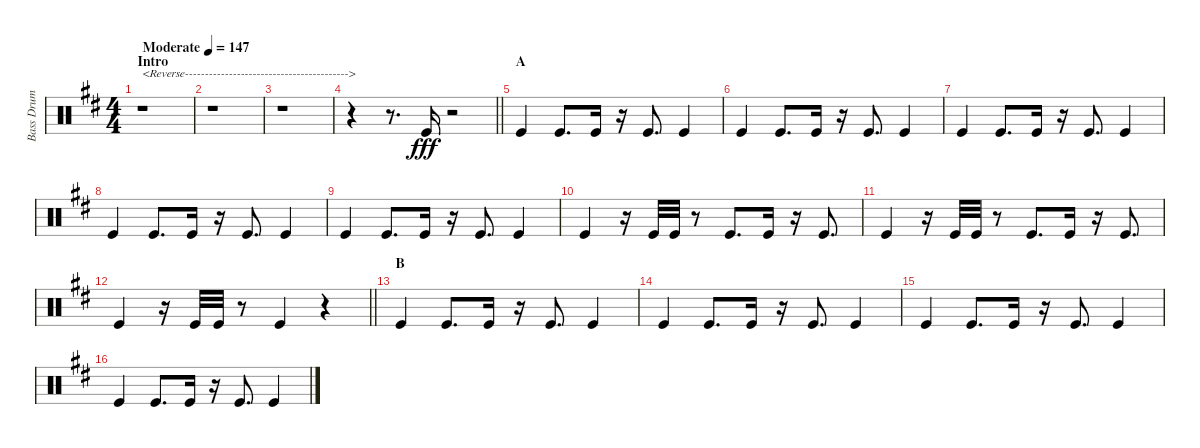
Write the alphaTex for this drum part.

\track ("Bass Drum" "Bass Drum") {instrument percussion}
\staff {score}
\articulation defaults
\ts (4 4)
\section ("" "Intro")
\tempo (147 "Moderate")
\clef neutral
\ks d
r.1{txt "<Reverse----------------------------------------->" dy fff} |
r.1 |
r.1 |
\barLineRight lightlight
r.4 r.8{d} "Kick (hit)".16 r.2 |
\section ("" "A")
"Kick (hit)".4 "Kick (hit)".8{d} "Kick (hit)".16 r.16 "Kick (hit)".8{d} "Kick (hit)".4 |
"Kick (hit)".4 "Kick (hit)".8{d} "Kick (hit)".16 r.16 "Kick (hit)".8{d} "Kick (hit)".4 |
"Kick (hit)".4 "Kick (hit)".8{d} "Kick (hit)".16 r.16 "Kick (hit)".8{d} "Kick (hit)".4 |
"Kick (hit)".4 "Kick (hit)".8{d} "Kick (hit)".16 r.16 "Kick (hit)".8{d} "Kick (hit)".4 |
"Kick (hit)".4 "Kick (hit)".8{d} "Kick (hit)".16 r.16 "Kick (hit)".8{d} "Kick (hit)".4 |
"Kick (hit)".4 r.16 "Kick (hit)".32 "Kick (hit)".32 r.8 "Kick (hit)".8{d} "Kick (hit)".16 r.16 "Kick (hit)".8{d} |
"Kick (hit)".4 r.16 "Kick (hit)".32 "Kick (hit)".32 r.8 "Kick (hit)".8{d} "Kick (hit)".16 r.16 "Kick (hit)".8{d} |
\barLineRight lightlight "Kick (hit)".4
r.16 "Kick (hit)".32 "Kick (hit)".32 r.8 "Kick (hit)".4 r.4 |
\section ("" "B")
"Kick (hit)".4 "Kick (hit)".8{d} "Kick (hit)".16 r.16 "Kick (hit)".8{d} "Kick (hit)".4 |
"Kick (hit)".4 "Kick (hit)".8{d} "Kick (hit)".16 r.16 "Kick (hit)".8{d} "Kick (hit)".4 |
"Kick (hit)".4 "Kick (hit)".8{d} "Kick (hit)".16 r.16 "Kick (hit)".8{d} "Kick (hit)".4 |
"Kick (hit)".4 "Kick (hit)".8{d} "Kick (hit)".16 r.16 "Kick (hit)".8{d} "Kick (hit)".4
